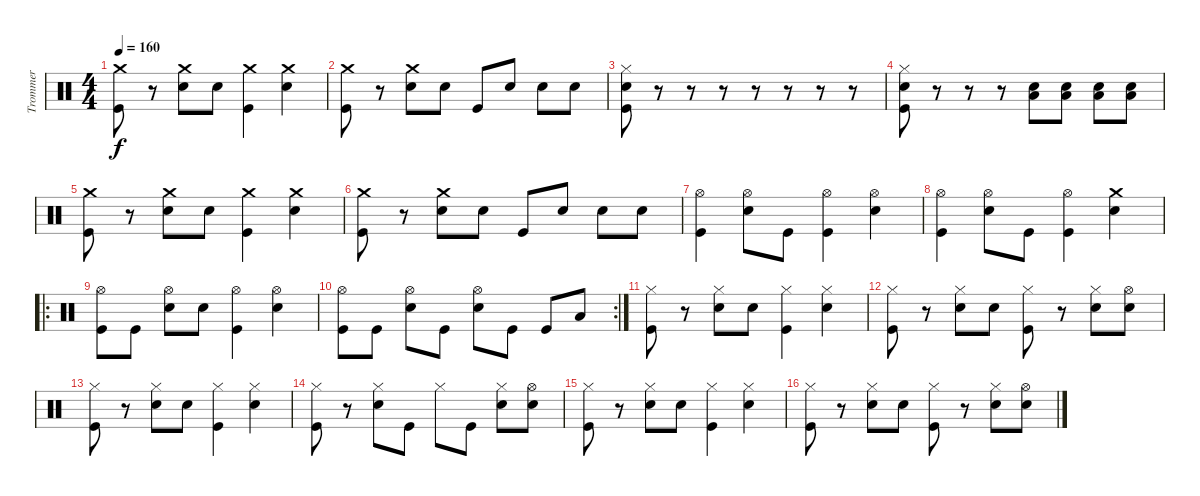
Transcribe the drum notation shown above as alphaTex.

\track ("Trommer" "Trommer") {instrument percussion}
\staff {score}
\articulation defaults
\ts (4 4)
\tempo 160
\clef neutral
\ks c
("Crash medium (hit)" "Kick (hit)").8{dy f} r.8 ("Crash medium (hit)" "Snare (hit) 2").8 "Snare (hit) 2".8 ("Crash medium (hit)" "Kick (hit)").4 ("Crash medium (hit)" "Snare (hit) 2").4 |
("Crash medium (hit)" "Kick (hit)").8 r.8 ("Crash medium (hit)" "Snare (hit) 2").8 "Snare (hit) 2".8 "Kick (hit)".8 "Snare (hit) 2".8 "Snare (hit) 2".8 "Snare (hit) 2".8 |
("Hi-Hat (closed)" "Snare (hit) 2" "Kick (hit)").8 r.8 r.8 r.8 r.8 r.8 r.8 r.8 |
("Hi-Hat (closed)" "Snare (hit) 2" "Kick (hit)").8 r.8 r.8 r.8 ("Snare (hit) 2" "Low Floor Tom (hit)").8 ("Snare (hit) 2" "Low Floor Tom (hit)").8 ("Snare (hit) 2" "Low Floor Tom (hit)").8 ("Snare (hit) 2" "Low Floor Tom (hit)").8 |
("Crash medium (hit)" "Kick (hit)").8 r.8 ("Crash medium (hit)" "Snare (hit) 2").8 "Snare (hit) 2".8 ("Crash medium (hit)" "Kick (hit)").4 ("Crash medium (hit)" "Snare (hit) 2").4 |
("Crash medium (hit)" "Kick (hit)").8 r.8 ("Crash medium (hit)" "Snare (hit) 2").8 "Snare (hit) 2".8 "Kick (hit)".8 "Snare (hit) 2".8 "Snare (hit) 2".8 "Snare (hit) 2".8 |
("Hi-Hat (open)" "Kick (hit)").4 ("Hi-Hat (open)" "Snare (hit) 2").8 "Kick (hit)".8 ("Hi-Hat (open)" "Kick (hit)").4 ("Hi-Hat (open)" "Snare (hit) 2").4 |
("Hi-Hat (open)" "Kick (hit)").4 ("Hi-Hat (open)" "Snare (hit) 2").8 "Kick (hit)".8 ("Hi-Hat (open)" "Kick (hit)").4 ("Crash medium (hit)" "Snare (hit) 2").4 |
\ro
("Hi-Hat (open)" "Kick (hit)").8 "Kick (hit)".8 ("Hi-Hat (open)" "Snare (hit) 2").8 "Snare (hit) 2".8 ("Hi-Hat (open)" "Kick (hit)").4 ("Hi-Hat (open)" "Snare (hit) 2").4 |
\rc 2
("Hi-Hat (open)" "Kick (hit)").8 "Kick (hit)".8 ("Hi-Hat (open)" "Snare (hit) 2").8 "Kick (hit)".8 ("Hi-Hat (open)" "Snare (hit) 2").8 "Kick (hit)".8 "Kick (hit)".8 "Low Floor Tom (hit)".8 |
("Hi-Hat (closed)" "Kick (hit)").8 r.8 ("Hi-Hat (closed)" "Snare (hit) 2").8 "Snare (hit) 2".8 ("Hi-Hat (closed)" "Kick (hit)").4 ("Hi-Hat (closed)" "Snare (hit) 2").4 |
("Hi-Hat (closed)" "Kick (hit)").8 r.8 ("Hi-Hat (closed)" "Snare (hit) 2").8 "Snare (hit) 2".8 ("Hi-Hat (closed)" "Kick (hit)").8 r.8 ("Hi-Hat (closed)" "Snare (hit) 2").8 ("Hi-Hat (open)" "Snare (hit) 2").8 |
("Hi-Hat (closed)" "Kick (hit)").8 r.8 ("Hi-Hat (closed)" "Snare (hit) 2").8 "Snare (hit) 2".8 ("Hi-Hat (closed)" "Kick (hit)").4 ("Hi-Hat (closed)" "Snare (hit) 2").4 |
("Hi-Hat (closed)" "Kick (hit)").8 r.8 ("Hi-Hat (closed)" "Snare (hit) 2").8 "Kick (hit)".8 "Hi-Hat (closed)".8 "Kick (hit)".8 ("Hi-Hat (closed)" "Snare (hit) 2").8 ("Hi-Hat (open)" "Snare (hit) 2").8 |
("Hi-Hat (closed)" "Kick (hit)").8 r.8 ("Hi-Hat (closed)" "Snare (hit) 2").8 "Snare (hit) 2".8 ("Hi-Hat (closed)" "Kick (hit)").4 ("Hi-Hat (closed)" "Snare (hit) 2").4 |
("Hi-Hat (closed)" "Kick (hit)").8 r.8 ("Hi-Hat (closed)" "Snare (hit) 2").8 "Snare (hit) 2".8 ("Hi-Hat (closed)" "Kick (hit)").8 r.8 ("Hi-Hat (closed)" "Snare (hit) 2").8 ("Hi-Hat (open)" "Snare (hit) 2").8
